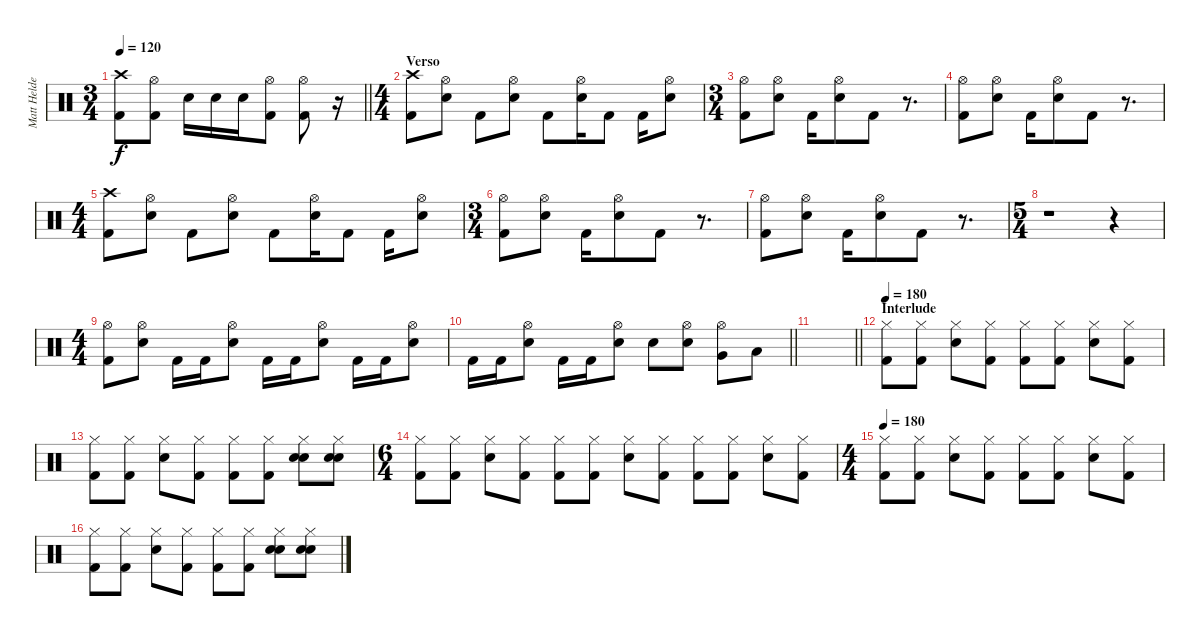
\track ("Matt Helders" "Matt Helde") {instrument percussion}
\staff {score}
\articulation defaults
\ts (3 4)
\tempo 120
\clef neutral
\barLineRight lightlight
\ks c
("Crash high (hit)" "Kick (hit) 2").8{dy f} ("Hi-Hat (open)" "Kick (hit) 2").8 "Electric Snare (hit)".16 "Electric Snare (hit)".16 "Electric Snare (hit)".16 ("Hi-Hat (open)" "Kick (hit) 2").8 ("Hi-Hat (open)" "Kick (hit) 2").8 r.16 |
\ts (4 4)
\section ("" "Verso")
("Crash high (hit)" "Kick (hit) 2").8 ("Hi-Hat (open)" "Electric Snare (hit)").8 "Kick (hit) 2".8 ("Hi-Hat (open)" "Electric Snare (hit)").8 "Kick (hit) 2".8 ("Hi-Hat (open)" "Electric Snare (hit)").16 "Kick (hit) 2".8 "Kick (hit) 2".16 ("Hi-Hat (open)" "Electric Snare (hit)").8 |
\ts (3 4)
("Hi-Hat (open)" "Kick (hit) 2").8 ("Hi-Hat (open)" "Electric Snare (hit)").8 "Kick (hit) 2".16 ("Hi-Hat (open)" "Electric Snare (hit)").8 "Kick (hit) 2".8 r.8{d} |
("Hi-Hat (open)" "Kick (hit) 2").8 ("Hi-Hat (open)" "Electric Snare (hit)").8 "Kick (hit) 2".16 ("Hi-Hat (open)" "Electric Snare (hit)").8 "Kick (hit) 2".8 r.8{d} |
\ts (4 4)
("Crash high (hit)" "Kick (hit) 2").8 ("Hi-Hat (open)" "Electric Snare (hit)").8 "Kick (hit) 2".8 ("Hi-Hat (open)" "Electric Snare (hit)").8 "Kick (hit) 2".8 ("Hi-Hat (open)" "Electric Snare (hit)").16 "Kick (hit) 2".8 "Kick (hit) 2".16 ("Hi-Hat (open)" "Electric Snare (hit)").8 |
\ts (3 4)
("Hi-Hat (open)" "Kick (hit) 2").8 ("Hi-Hat (open)" "Electric Snare (hit)").8 "Kick (hit) 2".16 ("Hi-Hat (open)" "Electric Snare (hit)").8 "Kick (hit) 2".8 r.8{d} |
("Hi-Hat (open)" "Kick (hit) 2").8 ("Hi-Hat (open)" "Electric Snare (hit)").8 "Kick (hit) 2".16 ("Hi-Hat (open)" "Electric Snare (hit)").8 "Kick (hit) 2".8 r.8{d} |
\ts (5 4)
r.1 r.4 |
\ts (4 4)
("Hi-Hat (open)" "Kick (hit) 2").8 ("Hi-Hat (open)" "Electric Snare (hit)").8 "Kick (hit) 2".16 "Kick (hit) 2".16 ("Hi-Hat (open)" "Electric Snare (hit)").8 "Kick (hit) 2".16 "Kick (hit) 2".16 ("Hi-Hat (open)" "Electric Snare (hit)").8 "Kick (hit) 2".16 "Kick (hit) 2".16 ("Hi-Hat (open)" "Electric Snare (hit)").8 |
\barLineRight lightlight "Kick (hit) 2".16 "Kick (hit) 2".16
("Hi-Hat (open)" "Electric Snare (hit)").8 "Kick (hit) 2".16 "Kick (hit) 2".16 ("Hi-Hat (open)" "Electric Snare (hit)").8 "Electric Snare (hit)".8 ("Hi-Hat (open)" "Electric Snare (hit)").8 ("Hi-Hat (open)" "Very Low Tom (hit)").8 "Low Floor Tom (hit)".8 |
\barLineRight lightlight
|
\section ("" "Interlude")
\tempo 180
("Hi-Hat (closed)" "Kick (hit) 2").8 ("Hi-Hat (closed)" "Kick (hit) 2").8 ("Hi-Hat (closed)" "Electric Snare (hit)").8 ("Hi-Hat (closed)" "Kick (hit) 2").8 ("Hi-Hat (closed)" "Kick (hit) 2").8 ("Hi-Hat (closed)" "Kick (hit) 2").8 ("Hi-Hat (closed)" "Electric Snare (hit)").8 ("Hi-Hat (closed)" "Kick (hit) 2").8 |
("Hi-Hat (closed)" "Kick (hit) 2").8 ("Hi-Hat (closed)" "Kick (hit) 2").8 ("Hi-Hat (closed)" "Electric Snare (hit)").8 ("Hi-Hat (closed)" "Kick (hit) 2").8 ("Hi-Hat (closed)" "Kick (hit) 2").8 ("Hi-Hat (closed)" "Kick (hit) 2").8 ("Hand Clap (hit)" "Hi-Hat (closed)" "Electric Snare (hit)").8 ("Hand Clap (hit)" "Hi-Hat (closed)" "Electric Snare (hit)").8 |
\ts (6 4)
("Hi-Hat (closed)" "Kick (hit) 2").8 ("Hi-Hat (closed)" "Kick (hit) 2").8 ("Hi-Hat (closed)" "Electric Snare (hit)").8 ("Hi-Hat (closed)" "Kick (hit) 2").8 ("Hi-Hat (closed)" "Kick (hit) 2").8 ("Hi-Hat (closed)" "Kick (hit) 2").8 ("Hi-Hat (closed)" "Electric Snare (hit)").8 ("Hi-Hat (closed)" "Kick (hit) 2").8 ("Hi-Hat (closed)" "Kick (hit) 2").8 ("Hi-Hat (closed)" "Kick (hit) 2").8 ("Hi-Hat (closed)" "Electric Snare (hit)").8 ("Hi-Hat (closed)" "Kick (hit) 2").8 |
\ts (4 4)
\tempo 180
("Hi-Hat (closed)" "Kick (hit) 2").8 ("Hi-Hat (closed)" "Kick (hit) 2").8 ("Hi-Hat (closed)" "Electric Snare (hit)").8 ("Hi-Hat (closed)" "Kick (hit) 2").8 ("Hi-Hat (closed)" "Kick (hit) 2").8 ("Hi-Hat (closed)" "Kick (hit) 2").8 ("Hi-Hat (closed)" "Electric Snare (hit)").8 ("Hi-Hat (closed)" "Kick (hit) 2").8 |
("Hi-Hat (closed)" "Kick (hit) 2").8 ("Hi-Hat (closed)" "Kick (hit) 2").8 ("Hi-Hat (closed)" "Electric Snare (hit)").8 ("Hi-Hat (closed)" "Kick (hit) 2").8 ("Hi-Hat (closed)" "Kick (hit) 2").8 ("Hi-Hat (closed)" "Kick (hit) 2").8 ("Hand Clap (hit)" "Hi-Hat (closed)" "Electric Snare (hit)").8 ("Hand Clap (hit)" "Hi-Hat (closed)" "Electric Snare (hit)").8
